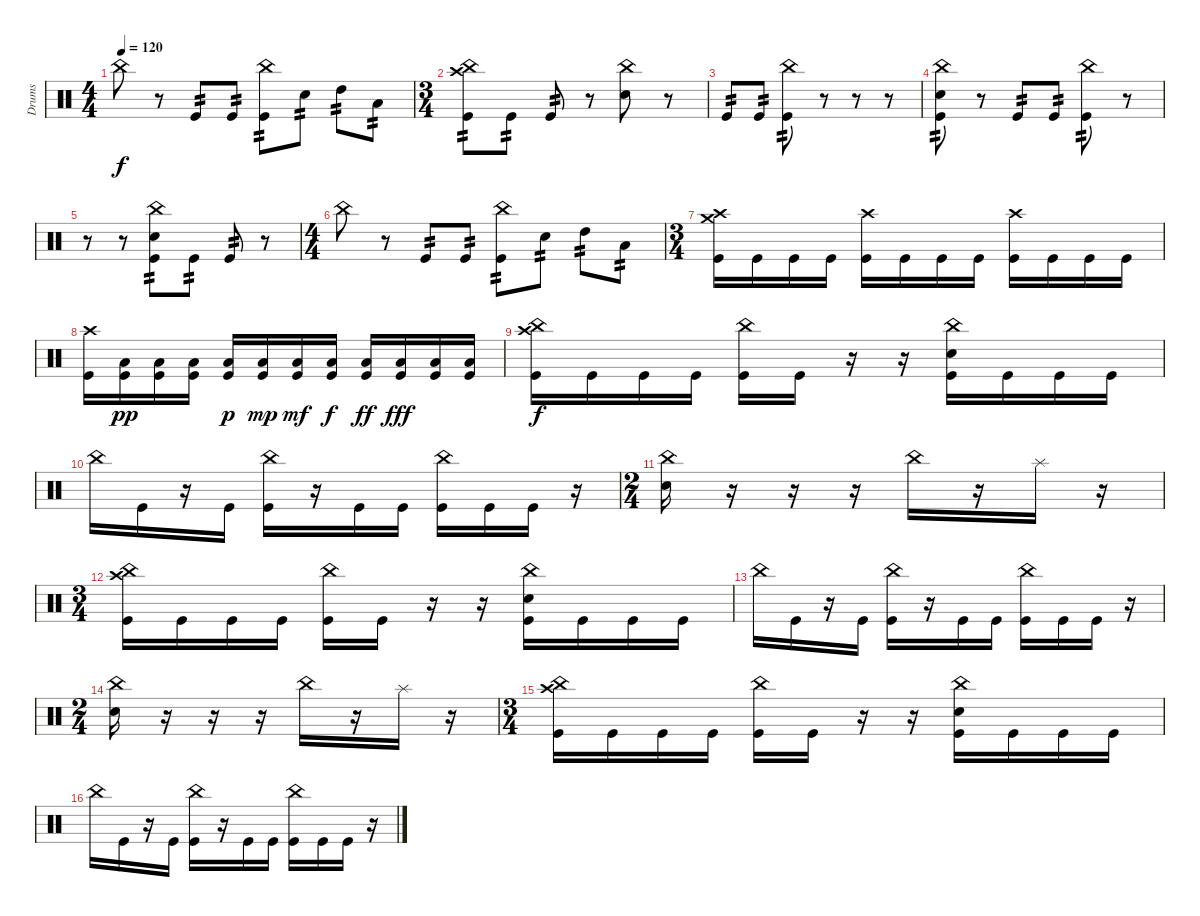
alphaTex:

\track ("Drums" "Drums") {instrument percussion}
\staff {score}
\articulation defaults
\ts (4 4)
\tempo 120
\clef neutral
\ks c "China (hit)".8{dy f}
r.8 "Kick (hit)".8{tp 2} "Kick (hit)".8{tp 2} ("China (hit)" "Kick (hit)").8{tp 2} "Snare (hit) 2".8{tp 2} "High Tom (hit)".8{tp 2} "Low Tom (hit)".8{tp 2} |
\ts (3 4)
("China (hit)" "Crash high (hit)" "Kick (hit)").8{tp 2} "Kick (hit)".8{tp 2} "Kick (hit)".8{tp 2} r.8 ("China (hit)" "Snare (hit) 2").8 r.8 |
"Kick (hit)".8{tp 2} "Kick (hit)".8{tp 2} ("China (hit)" "Kick (hit)").8{tp 2} r.8 r.8 r.8 |
("China (hit)" "Kick (hit)" "Snare (hit) 2").8{tp 2} r.8 "Kick (hit)".8{tp 2} "Kick (hit)".8{tp 2} ("China (hit)" "Kick (hit)").8{tp 2} r.8 |
r.8 r.8 ("Snare (hit) 2" "China (hit)" "Kick (hit)").8{tp 2} "Kick (hit)".8{tp 2} "Kick (hit)".8{tp 2} r.8 |
\ts (4 4)
"China (hit)".8 r.8 "Kick (hit)".8{tp 2} "Kick (hit)".8{tp 2} ("China (hit)" "Kick (hit)").8{tp 2} "Snare (hit) 2".8{tp 2} "High Tom (hit)".8{tp 2} "Low Tom (hit)".8{tp 2} |
\ts (3 4)
("Crash medium (hit)" "Crash high (hit)" "Kick (hit)").16 "Kick (hit)".16 "Kick (hit)".16 "Kick (hit)".16 ("Crash high (hit)" "Kick (hit)").16 "Kick (hit)".16 "Kick (hit)".16 "Kick (hit)".16 ("Crash high (hit)" "Kick (hit)").16 "Kick (hit)".16 "Kick (hit)".16 "Kick (hit)".16 |
("Crash high (hit)" "Kick (hit)").16 ("Low Tom (hit)" "Kick (hit)").16{dy pp} ("Low Tom (hit)" "Kick (hit)").16 ("Low Tom (hit)" "Kick (hit)").16 ("Low Tom (hit)" "Kick (hit)").16{dy p} ("Low Tom (hit)" "Kick (hit)").16{dy mp} ("Low Tom (hit)" "Kick (hit)").16{dy mf} ("Low Tom (hit)" "Kick (hit)").16{dy f} ("Low Tom (hit)" "Kick (hit)").16{dy ff} ("Low Tom (hit)" "Kick (hit)").16{dy fff} ("Low Tom (hit)" "Kick (hit)").16 ("Low Tom (hit)" "Kick (hit)").16 |
("Crash high (hit)" "China (hit)" "Kick (hit)").16{dy f} "Kick (hit)".16 "Kick (hit)".16 "Kick (hit)".16 ("China (hit)" "Kick (hit)").16 "Kick (hit)".16 r.16 r.16 ("China (hit)" "Snare (hit) 2" "Kick (hit)").16 "Kick (hit)".16 "Kick (hit)".16 "Kick (hit)".16 |
"China (hit)".16 "Kick (hit)".16 r.16 "Kick (hit)".16 ("China (hit)" "Kick (hit)").16 r.16 "Kick (hit)".16 "Kick (hit)".16 ("China (hit)" "Kick (hit)").16 "Kick (hit)".16 "Kick (hit)".16 r.16 |
\ts (2 4)
("China (hit)" "Snare (hit) 2").16 r.16 r.16 r.16 "China (hit)".16 r.16 "Splash (hit)".16 r.16 |
\ts (3 4)
("Crash high (hit)" "China (hit)" "Kick (hit)").16 "Kick (hit)".16 "Kick (hit)".16 "Kick (hit)".16 ("China (hit)" "Kick (hit)").16 "Kick (hit)".16 r.16 r.16 ("China (hit)" "Snare (hit) 2" "Kick (hit)").16 "Kick (hit)".16 "Kick (hit)".16 "Kick (hit)".16 |
"China (hit)".16 "Kick (hit)".16 r.16 "Kick (hit)".16 ("China (hit)" "Kick (hit)").16 r.16 "Kick (hit)".16 "Kick (hit)".16 ("China (hit)" "Kick (hit)").16 "Kick (hit)".16 "Kick (hit)".16 r.16 |
\ts (2 4)
("China (hit)" "Snare (hit) 2").16 r.16 r.16 r.16 "China (hit)".16 r.16 "Splash (hit)".16 r.16 |
\ts (3 4)
("Crash high (hit)" "China (hit)" "Kick (hit)").16 "Kick (hit)".16 "Kick (hit)".16 "Kick (hit)".16 ("China (hit)" "Kick (hit)").16 "Kick (hit)".16 r.16 r.16 ("China (hit)" "Snare (hit) 2" "Kick (hit)").16 "Kick (hit)".16 "Kick (hit)".16 "Kick (hit)".16 |
"China (hit)".16 "Kick (hit)".16 r.16 "Kick (hit)".16 ("China (hit)" "Kick (hit)").16 r.16 "Kick (hit)".16 "Kick (hit)".16 ("China (hit)" "Kick (hit)").16 "Kick (hit)".16 "Kick (hit)".16 r.16
